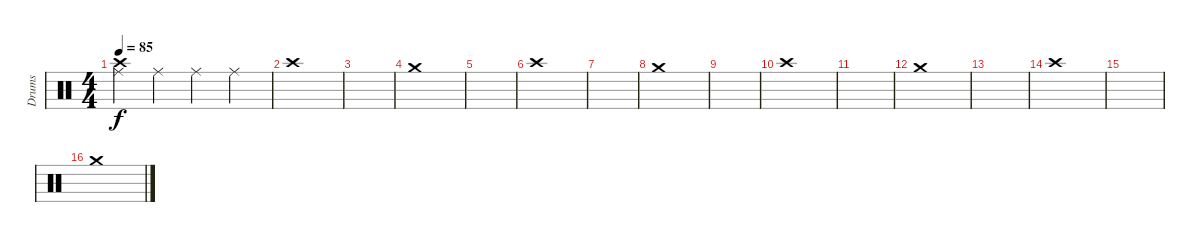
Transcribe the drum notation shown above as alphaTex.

\track ("Drums" "Drums") {instrument percussion}
\staff {score}
\articulation defaults
\ts (4 4)
\tempo 85
\clef neutral
\ks c
("Ride (middle)" "Crash high (hit)").4{dy f} "Ride (middle)".4 "Ride (middle)".4 "Ride (middle)".4 |
"Crash high (hit)".1 |
|
"Crash medium (hit)".1 |
|
"Crash high (hit)".1 |
|
"Crash medium (hit)".1 |
|
"Crash high (hit)".1 |
|
"Crash medium (hit)".1 |
|
"Crash high (hit)".1 |
|
"Crash medium (hit)".1
